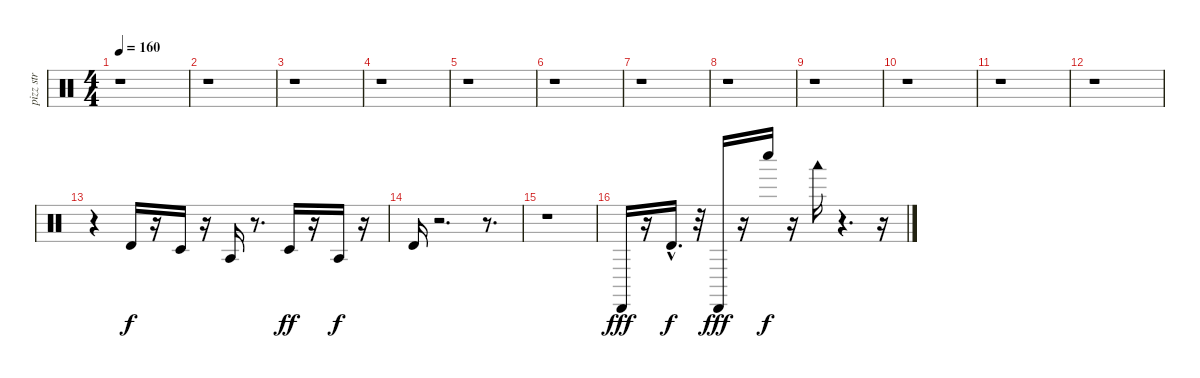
\track ("pizz str" "pizz str") {instrument percussion}
\staff {score}
\articulation defaults
\ts (4 4)
\tempo 160
\clef neutral
\ks c
r.1{dy ff} |
r.1 |
r.1 |
r.1 |
r.1 |
r.1 |
r.1 |
r.1 |
r.1 |
r.1 |
r.1 |
r.1 |
r.4 "Timbale high (hit)".16{dy f} r.16 "Timbale low (hit)".16 r.16 "Agogo tow (hit)".16 r.8{d} "Timbale low (hit)".16{dy ff} r.16 "Agogo tow (hit)".16{dy f} r.16 |
"Timbale high (hit)".16 r.2{d} r.8{d} |
r.1 |
"Cabasa (hit)".16{dy fff} r.16 "Timbale high (hit)"{hac}.16{d dy f} r.32 "Cabasa (hit)".16{dy fff} r.16 "Whistle low (hit)".16{dy f} r.16 "Woodblock low (hit)".16 r.4{d} r.16
